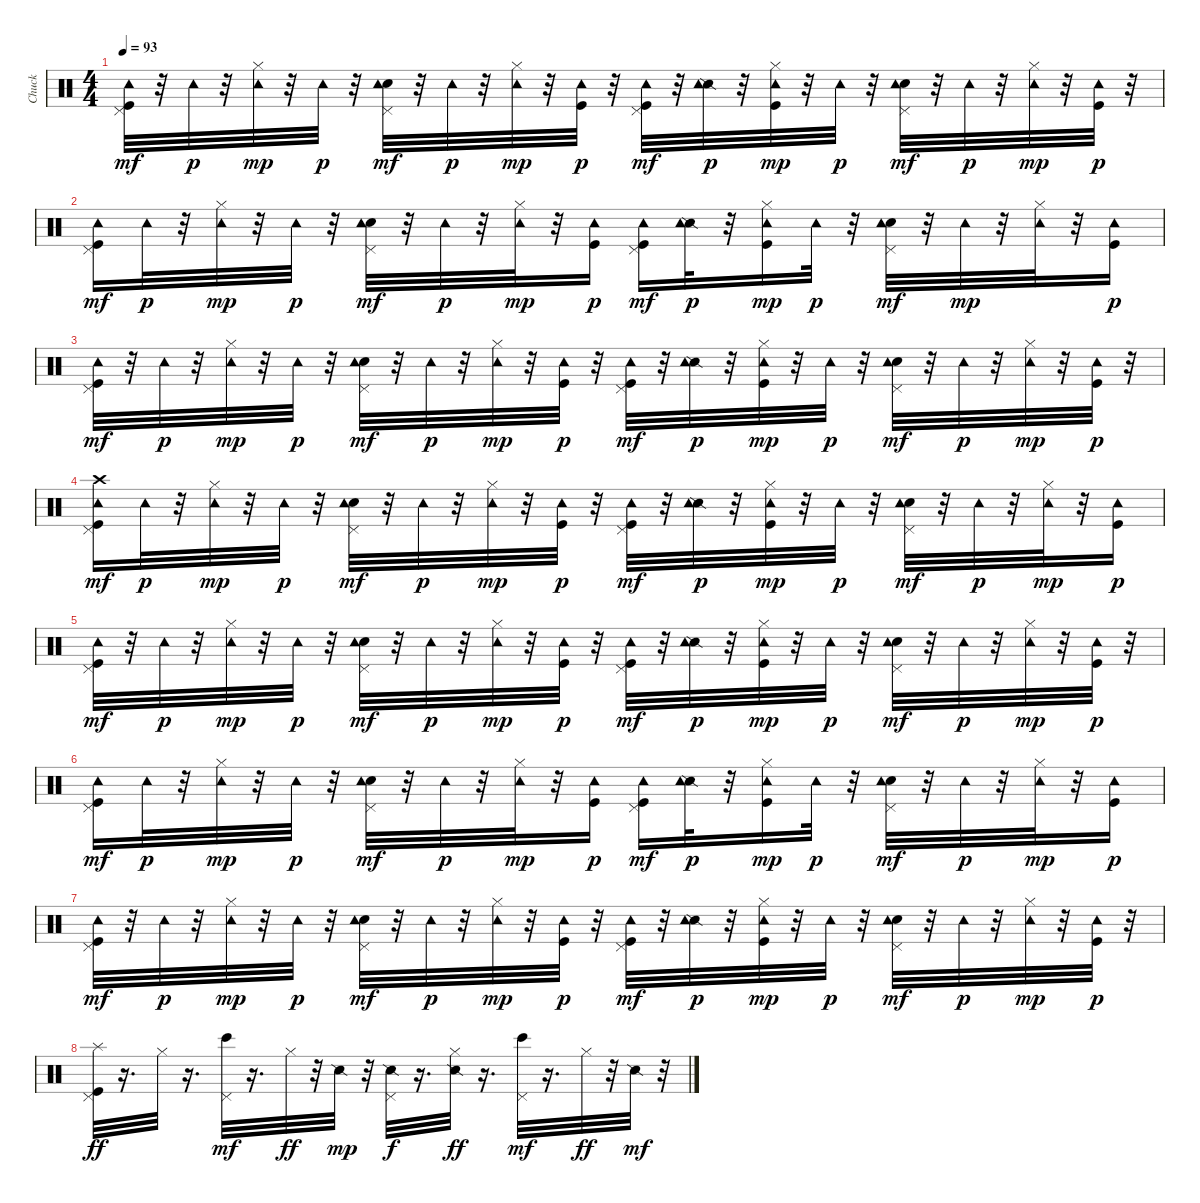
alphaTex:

\track ("Chuck" "Chuck") {instrument percussion}
\staff {score}
\articulation defaults
\ts (4 4)
\tempo 93
\clef neutral
\ks c
("Kick (hit)" "Pedal Hi-Hat (hit)" "Tambourine (hit)").32{dy mf} r.32 "Tambourine (hit)".32{dy p} r.32 ("Hi-Hat (closed)" "Tambourine (hit)").32{dy mp} r.32 "Tambourine (hit)".32{dy p} r.32 ("Electric Snare (hit)" "Pedal Hi-Hat (hit)" "Tambourine (hit)").32{dy mf} r.32 "Tambourine (hit)".32{dy p} r.32 ("Hi-Hat (closed)" "Tambourine (hit)").32{dy mp} r.32 ("Kick (hit)" "Tambourine (hit)").32{dy p} r.32 ("Kick (hit)" "Pedal Hi-Hat (hit)" "Tambourine (hit)").32{dy mf} r.32 ("Snare (side stick) 2" "Tambourine (hit)").32{dy p} r.32 ("Kick (hit)" "Hi-Hat (closed)" "Tambourine (hit)").32{dy mp} r.32 "Tambourine (hit)".32{dy p} r.32 ("Electric Snare (hit)" "Pedal Hi-Hat (hit)" "Tambourine (hit)").32{dy mf} r.32 "Tambourine (hit)".32{dy p} r.32 ("Hi-Hat (closed)" "Tambourine (hit)").32{dy mp} r.32 ("Kick (hit)" "Tambourine (hit)").32{dy p} r.32 |
("Kick (hit)" "Pedal Hi-Hat (hit)" "Tambourine (hit)").16{dy mf} "Tambourine (hit)".32{dy p} r.32 ("Hi-Hat (closed)" "Tambourine (hit)").32{dy mp} r.32 "Tambourine (hit)".32{dy p} r.32 ("Electric Snare (hit)" "Pedal Hi-Hat (hit)" "Tambourine (hit)").32{dy mf} r.32 "Tambourine (hit)".32{dy p} r.32 ("Hi-Hat (closed)" "Tambourine (hit)").32{dy mp} r.32 ("Kick (hit)" "Tambourine (hit)").16{dy p} ("Kick (hit)" "Pedal Hi-Hat (hit)" "Tambourine (hit)").16{dy mf} ("Snare (side stick) 2" "Tambourine (hit)").32{dy p} r.32 ("Kick (hit)" "Hi-Hat (closed)" "Tambourine (hit)").16{dy mp} "Tambourine (hit)".32{dy p} r.32 ("Electric Snare (hit)" "Pedal Hi-Hat (hit)" "Tambourine (hit)").32{dy mf} r.32 "Tambourine (hit)".32{dy mp} r.32 ("Hi-Hat (closed)" "Tambourine (hit)").32 r.32 ("Kick (hit)" "Tambourine (hit)").16{dy p} |
("Kick (hit)" "Pedal Hi-Hat (hit)" "Tambourine (hit)").32{dy mf} r.32 "Tambourine (hit)".32{dy p} r.32 ("Hi-Hat (closed)" "Tambourine (hit)").32{dy mp} r.32 "Tambourine (hit)".32{dy p} r.32 ("Electric Snare (hit)" "Pedal Hi-Hat (hit)" "Tambourine (hit)").32{dy mf} r.32 "Tambourine (hit)".32{dy p} r.32 ("Hi-Hat (closed)" "Tambourine (hit)").32{dy mp} r.32 ("Kick (hit)" "Tambourine (hit)").32{dy p} r.32 ("Kick (hit)" "Pedal Hi-Hat (hit)" "Tambourine (hit)").32{dy mf} r.32 ("Snare (side stick) 2" "Tambourine (hit)").32{dy p} r.32 ("Kick (hit)" "Hi-Hat (closed)" "Tambourine (hit)").32{dy mp} r.32 "Tambourine (hit)".32{dy p} r.32 ("Electric Snare (hit)" "Pedal Hi-Hat (hit)" "Tambourine (hit)").32{dy mf} r.32 "Tambourine (hit)".32{dy p} r.32 ("Hi-Hat (closed)" "Tambourine (hit)").32{dy mp} r.32 ("Kick (hit)" "Tambourine (hit)").32{dy p} r.32 |
("Kick (hit)" "Pedal Hi-Hat (hit)" "Crash high (hit)" "Tambourine (hit)").16{dy mf} "Tambourine (hit)".32{dy p} r.32 ("Hi-Hat (closed)" "Tambourine (hit)").32{dy mp} r.32 "Tambourine (hit)".32{dy p} r.32 ("Electric Snare (hit)" "Pedal Hi-Hat (hit)" "Tambourine (hit)").32{dy mf} r.32 "Tambourine (hit)".32{dy p} r.32 ("Hi-Hat (closed)" "Tambourine (hit)").32{dy mp} r.32 ("Kick (hit)" "Tambourine (hit)").32{dy p} r.32 ("Kick (hit)" "Pedal Hi-Hat (hit)" "Tambourine (hit)").32{dy mf} r.32 ("Snare (side stick) 2" "Tambourine (hit)").32{dy p} r.32 ("Kick (hit)" "Hi-Hat (closed)" "Tambourine (hit)").32{dy mp} r.32 "Tambourine (hit)".32{dy p} r.32 ("Electric Snare (hit)" "Pedal Hi-Hat (hit)" "Tambourine (hit)").32{dy mf} r.32 "Tambourine (hit)".32{dy p} r.32 ("Hi-Hat (closed)" "Tambourine (hit)").32{dy mp} r.32 ("Kick (hit)" "Tambourine (hit)").16{dy p} |
("Kick (hit)" "Pedal Hi-Hat (hit)" "Tambourine (hit)").32{dy mf} r.32 "Tambourine (hit)".32{dy p} r.32 ("Hi-Hat (closed)" "Tambourine (hit)").32{dy mp} r.32 "Tambourine (hit)".32{dy p} r.32 ("Electric Snare (hit)" "Pedal Hi-Hat (hit)" "Tambourine (hit)").32{dy mf} r.32 "Tambourine (hit)".32{dy p} r.32 ("Hi-Hat (closed)" "Tambourine (hit)").32{dy mp} r.32 ("Kick (hit)" "Tambourine (hit)").32{dy p} r.32 ("Kick (hit)" "Pedal Hi-Hat (hit)" "Tambourine (hit)").32{dy mf} r.32 ("Snare (side stick) 2" "Tambourine (hit)").32{dy p} r.32 ("Kick (hit)" "Hi-Hat (closed)" "Tambourine (hit)").32{dy mp} r.32 "Tambourine (hit)".32{dy p} r.32 ("Electric Snare (hit)" "Pedal Hi-Hat (hit)" "Tambourine (hit)").32{dy mf} r.32 "Tambourine (hit)".32{dy p} r.32 ("Hi-Hat (closed)" "Tambourine (hit)").32{dy mp} r.32 ("Kick (hit)" "Tambourine (hit)").32{dy p} r.32 |
("Kick (hit)" "Pedal Hi-Hat (hit)" "Tambourine (hit)").16{dy mf} "Tambourine (hit)".32{dy p} r.32 ("Hi-Hat (closed)" "Tambourine (hit)").32{dy mp} r.32 "Tambourine (hit)".32{dy p} r.32 ("Electric Snare (hit)" "Pedal Hi-Hat (hit)" "Tambourine (hit)").32{dy mf} r.32 "Tambourine (hit)".32{dy p} r.32 ("Hi-Hat (closed)" "Tambourine (hit)").32{dy mp} r.32 ("Kick (hit)" "Tambourine (hit)").16{dy p} ("Kick (hit)" "Pedal Hi-Hat (hit)" "Tambourine (hit)").16{dy mf} ("Snare (side stick) 2" "Tambourine (hit)").32{dy p} r.32 ("Kick (hit)" "Hi-Hat (closed)" "Tambourine (hit)").16{dy mp} "Tambourine (hit)".32{dy p} r.32 ("Electric Snare (hit)" "Pedal Hi-Hat (hit)" "Tambourine (hit)").32{dy mf} r.32 "Tambourine (hit)".32{dy p} r.32 ("Hi-Hat (closed)" "Tambourine (hit)").32{dy mp} r.32 ("Kick (hit)" "Tambourine (hit)").16{dy p} |
("Kick (hit)" "Pedal Hi-Hat (hit)" "Tambourine (hit)").32{dy mf} r.32 "Tambourine (hit)".32{dy p} r.32 ("Hi-Hat (closed)" "Tambourine (hit)").32{dy mp} r.32 "Tambourine (hit)".32{dy p} r.32 ("Electric Snare (hit)" "Pedal Hi-Hat (hit)" "Tambourine (hit)").32{dy mf} r.32 "Tambourine (hit)".32{dy p} r.32 ("Hi-Hat (closed)" "Tambourine (hit)").32{dy mp} r.32 ("Kick (hit)" "Tambourine (hit)").32{dy p} r.32 ("Kick (hit)" "Pedal Hi-Hat (hit)" "Tambourine (hit)").32{dy mf} r.32 ("Snare (side stick) 2" "Tambourine (hit)").32{dy p} r.32 ("Kick (hit)" "Hi-Hat (closed)" "Tambourine (hit)").32{dy mp} r.32 "Tambourine (hit)".32{dy p} r.32 ("Electric Snare (hit)" "Pedal Hi-Hat (hit)" "Tambourine (hit)").32{dy mf} r.32 "Tambourine (hit)".32{dy p} r.32 ("Hi-Hat (closed)" "Tambourine (hit)").32{dy mp} r.32 ("Kick (hit)" "Tambourine (hit)").32{dy p} r.32 |
("Kick (hit)" "Pedal Hi-Hat (hit)" "Splash (hit)").32{dy ff} r.16{d} "Hi-Hat (closed)".32 r.16{d} ("Bongo High (hit)" "Pedal Hi-Hat (hit)").32{dy mf} r.16{d} "Hi-Hat (closed)".32{dy ff} r.32 "Snare (side stick) 2".32{dy mp} r.32 ("Snare (side stick) 2" "Pedal Hi-Hat (hit)").32{dy f} r.16{d} ("Snare (side stick) 2" "Hi-Hat (closed)").32{dy ff} r.16{d} ("Bongo High (hit)" "Pedal Hi-Hat (hit)").32{dy mf} r.16{d} "Hi-Hat (closed)".32{dy ff} r.32 "Snare (side stick) 2".32{dy mf} r.32
